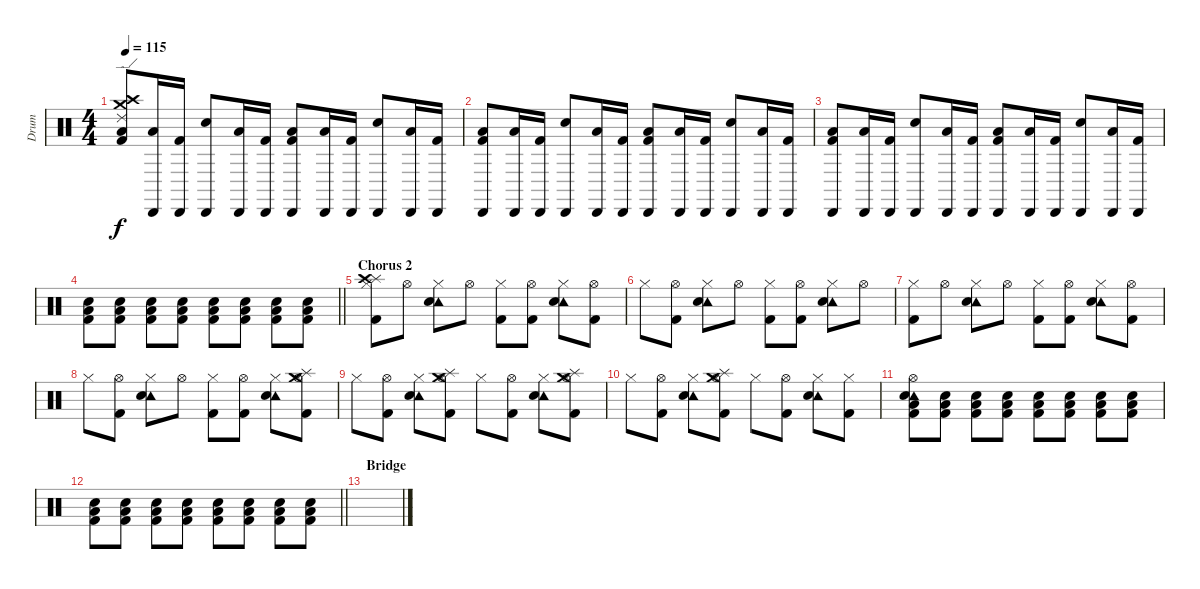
\track ("Drum" "Drum") {instrument percussion}
\staff {score}
\articulation defaults
\ts (4 4)
\tempo 115
\clef neutral
\ks c
("Crash high (hit)" "Crash medium (hit)" "Ride (edge) 2" "Low Tom (hit)" "Kick (hit) 2").8{dy f} ("Cabasa (hit)" "Low Tom (hit)").16 ("Cabasa (hit)" "Kick (hit) 2").16 ("Cabasa (hit)" "Electric Snare (hit)").8 ("Cabasa (hit)" "Low Tom (hit)").16 ("Cabasa (hit)" "Kick (hit) 2").16 ("Cabasa (hit)" "Low Tom (hit)" "Kick (hit) 2").8 ("Cabasa (hit)" "Low Tom (hit)").16 ("Cabasa (hit)" "Kick (hit) 2").16 ("Cabasa (hit)" "Electric Snare (hit)").8 ("Cabasa (hit)" "Low Tom (hit)").16 ("Cabasa (hit)" "Kick (hit) 2").16 |
("Cabasa (hit)" "Low Tom (hit)" "Kick (hit) 2").8 ("Cabasa (hit)" "Low Tom (hit)").16 ("Cabasa (hit)" "Kick (hit) 2").16 ("Cabasa (hit)" "Electric Snare (hit)").8 ("Cabasa (hit)" "Low Tom (hit)").16 ("Cabasa (hit)" "Kick (hit) 2").16 ("Cabasa (hit)" "Low Tom (hit)" "Kick (hit) 2").8 ("Cabasa (hit)" "Low Tom (hit)").16 ("Cabasa (hit)" "Kick (hit) 2").16 ("Cabasa (hit)" "Electric Snare (hit)").8 ("Cabasa (hit)" "Low Tom (hit)").16 ("Cabasa (hit)" "Kick (hit) 2").16 |
("Cabasa (hit)" "Low Tom (hit)" "Kick (hit) 2").8 ("Cabasa (hit)" "Low Tom (hit)").16 ("Cabasa (hit)" "Kick (hit) 2").16 ("Cabasa (hit)" "Electric Snare (hit)").8 ("Cabasa (hit)" "Low Tom (hit)").16 ("Cabasa (hit)" "Kick (hit) 2").16 ("Cabasa (hit)" "Low Tom (hit)" "Kick (hit) 2").8 ("Cabasa (hit)" "Low Tom (hit)").16 ("Cabasa (hit)" "Kick (hit) 2").16 ("Cabasa (hit)" "Electric Snare (hit)").8 ("Cabasa (hit)" "Low Tom (hit)").16 ("Cabasa (hit)" "Kick (hit) 2").16 |
\barLineRight lightlight
("Low Tom (hit)" "Electric Snare (hit)" "Kick (hit) 2").8 ("Low Tom (hit)" "Electric Snare (hit)" "Kick (hit) 2").8 ("Low Tom (hit)" "Electric Snare (hit)" "Kick (hit) 2").8 ("Low Tom (hit)" "Electric Snare (hit)" "Kick (hit) 2").8 ("Low Tom (hit)" "Electric Snare (hit)" "Kick (hit) 2").8 ("Low Tom (hit)" "Electric Snare (hit)" "Kick (hit) 2").8 ("Low Tom (hit)" "Electric Snare (hit)" "Kick (hit) 2").8 ("Low Tom (hit)" "Electric Snare (hit)" "Kick (hit) 2").8 |
\section ("" "Chorus 2")
("Hi-Hat (closed)" "Splash (hit)" "Crash high (hit)" "Kick (hit) 2").8 "Hi-Hat (open)".8 ("Hi-Hat (closed)" "Tambourine (hit)" "Electric Snare (hit)").8 "Hi-Hat (open)".8 ("Hi-Hat (closed)" "Kick (hit) 2").8 ("Hi-Hat (open)" "Kick (hit) 2").8 ("Hi-Hat (closed)" "Tambourine (hit)" "Electric Snare (hit)").8 ("Hi-Hat (open)" "Kick (hit) 2").8 |
"Hi-Hat (closed)".8 ("Hi-Hat (open)" "Kick (hit) 2").8 ("Hi-Hat (closed)" "Tambourine (hit)" "Electric Snare (hit)").8 "Hi-Hat (open)".8 ("Hi-Hat (closed)" "Kick (hit) 2").8 ("Hi-Hat (open)" "Kick (hit) 2").8 ("Hi-Hat (closed)" "Tambourine (hit)" "Electric Snare (hit)").8 "Hi-Hat (open)".8 |
("Hi-Hat (closed)" "Kick (hit) 2").8 "Hi-Hat (open)".8 ("Hi-Hat (closed)" "Tambourine (hit)" "Electric Snare (hit)").8 "Hi-Hat (open)".8 ("Hi-Hat (closed)" "Kick (hit) 2").8 ("Hi-Hat (open)" "Kick (hit) 2").8 ("Hi-Hat (closed)" "Tambourine (hit)" "Electric Snare (hit)").8 ("Hi-Hat (open)" "Kick (hit) 2").8 |
"Hi-Hat (closed)".8 ("Hi-Hat (open)" "Kick (hit) 2").8 ("Hi-Hat (closed)" "Tambourine (hit)" "Electric Snare (hit)").8 "Hi-Hat (open)".8 ("Hi-Hat (closed)" "Kick (hit) 2").8 ("Hi-Hat (open)" "Kick (hit) 2").8 ("Hi-Hat (closed)" "Tambourine (hit)" "Electric Snare (hit)").8 ("Hi-Hat (open)" "Crash medium (hit)" "Splash (hit)" "Kick (hit) 2").8 |
"Hi-Hat (closed)".8 ("Hi-Hat (open)" "Kick (hit) 2").8 ("Hi-Hat (closed)" "Tambourine (hit)" "Electric Snare (hit)").8 ("Hi-Hat (open)" "Crash medium (hit)" "Splash (hit)" "Kick (hit) 2").8 "Hi-Hat (closed)".8 ("Hi-Hat (open)" "Kick (hit) 2").8 ("Hi-Hat (closed)" "Tambourine (hit)" "Electric Snare (hit)").8 ("Hi-Hat (open)" "Crash medium (hit)" "Splash (hit)" "Kick (hit) 2").8 |
"Hi-Hat (closed)".8 ("Hi-Hat (open)" "Kick (hit) 2").8 ("Hi-Hat (closed)" "Tambourine (hit)" "Electric Snare (hit)").8 ("Hi-Hat (open)" "Crash medium (hit)" "Splash (hit)" "Kick (hit) 2").8 "Hi-Hat (closed)".8 ("Hi-Hat (open)" "Kick (hit) 2").8 ("Hi-Hat (closed)" "Tambourine (hit)" "Electric Snare (hit)").8 ("Hi-Hat (closed)" "Kick (hit) 2").8 |
("Tambourine (hit)" "Hi-Hat (open)" "Low Tom (hit)" "Electric Snare (hit)" "Kick (hit) 2").8 ("Low Tom (hit)" "Electric Snare (hit)" "Kick (hit) 2").8 ("Low Tom (hit)" "Electric Snare (hit)" "Kick (hit) 2").8 ("Low Tom (hit)" "Electric Snare (hit)" "Kick (hit) 2").8 ("Low Tom (hit)" "Electric Snare (hit)" "Kick (hit) 2").8 ("Low Tom (hit)" "Electric Snare (hit)" "Kick (hit) 2").8 ("Low Tom (hit)" "Electric Snare (hit)" "Kick (hit) 2").8 ("Low Tom (hit)" "Electric Snare (hit)" "Kick (hit) 2").8 |
\barLineRight lightlight
("Low Tom (hit)" "Electric Snare (hit)" "Kick (hit) 2").8 ("Low Tom (hit)" "Electric Snare (hit)" "Kick (hit) 2").8 ("Low Tom (hit)" "Electric Snare (hit)" "Kick (hit) 2").8 ("Low Tom (hit)" "Electric Snare (hit)" "Kick (hit) 2").8 ("Low Tom (hit)" "Electric Snare (hit)" "Kick (hit) 2").8 ("Low Tom (hit)" "Electric Snare (hit)" "Kick (hit) 2").8 ("Low Tom (hit)" "Electric Snare (hit)" "Kick (hit) 2").8 ("Low Tom (hit)" "Electric Snare (hit)" "Kick (hit) 2").8 |
\section ("" "Bridge")
